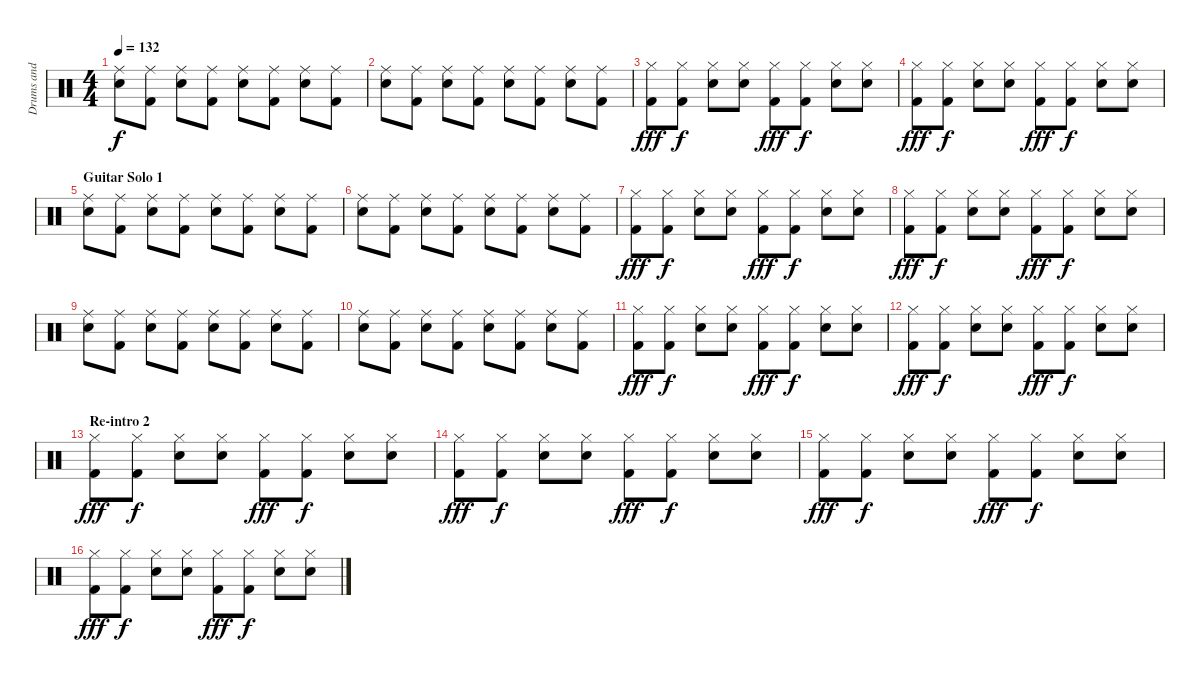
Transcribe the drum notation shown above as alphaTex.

\track ("Drums and Percussion" "Drums and ") {instrument percussion}
\staff {score}
\articulation defaults
\ts (4 4)
\tempo 132
\clef neutral
\ks c
("Ride (middle)" "Electric Snare (hit)").8{dy f} ("Ride (middle)" "Kick (hit) 2").8 ("Ride (middle)" "Electric Snare (hit)").8 ("Ride (middle)" "Kick (hit) 2").8 ("Ride (middle)" "Electric Snare (hit)").8 ("Ride (middle)" "Kick (hit) 2").8 ("Ride (middle)" "Electric Snare (hit)").8 ("Ride (middle)" "Kick (hit) 2").8 |
("Ride (middle)" "Electric Snare (hit)").8 ("Ride (middle)" "Kick (hit) 2").8 ("Ride (middle)" "Electric Snare (hit)").8 ("Ride (middle)" "Kick (hit) 2").8 ("Ride (middle)" "Electric Snare (hit)").8 ("Ride (middle)" "Kick (hit) 2").8 ("Ride (middle)" "Electric Snare (hit)").8 ("Ride (middle)" "Kick (hit) 2").8 |
("Hi-Hat (closed)" "Kick (hit) 2").8{dy fff} ("Hi-Hat (closed)" "Kick (hit) 2").8{dy f} ("Hi-Hat (closed)" "Hand Clap (hit)").8 ("Hi-Hat (closed)" "Hand Clap (hit)").8 ("Hi-Hat (closed)" "Kick (hit) 2").8{dy fff} ("Hi-Hat (closed)" "Kick (hit) 2").8{dy f} ("Hi-Hat (closed)" "Hand Clap (hit)").8 ("Hi-Hat (closed)" "Hand Clap (hit)").8 |
("Hi-Hat (closed)" "Kick (hit) 2").8{dy fff} ("Hi-Hat (closed)" "Kick (hit) 2").8{dy f} ("Hi-Hat (closed)" "Hand Clap (hit)").8 ("Hi-Hat (closed)" "Hand Clap (hit)").8 ("Hi-Hat (closed)" "Kick (hit) 2").8{dy fff} ("Hi-Hat (closed)" "Kick (hit) 2").8{dy f} ("Hi-Hat (closed)" "Hand Clap (hit)").8 ("Hi-Hat (closed)" "Hand Clap (hit)").8 |
\section ("" "Guitar Solo 1")
("Ride (middle)" "Electric Snare (hit)").8 ("Ride (middle)" "Kick (hit) 2").8 ("Ride (middle)" "Electric Snare (hit)").8 ("Ride (middle)" "Kick (hit) 2").8 ("Ride (middle)" "Electric Snare (hit)").8 ("Ride (middle)" "Kick (hit) 2").8 ("Ride (middle)" "Electric Snare (hit)").8 ("Ride (middle)" "Kick (hit) 2").8 |
("Ride (middle)" "Electric Snare (hit)").8 ("Ride (middle)" "Kick (hit) 2").8 ("Ride (middle)" "Electric Snare (hit)").8 ("Ride (middle)" "Kick (hit) 2").8 ("Ride (middle)" "Electric Snare (hit)").8 ("Ride (middle)" "Kick (hit) 2").8 ("Ride (middle)" "Electric Snare (hit)").8 ("Ride (middle)" "Kick (hit) 2").8 |
("Hi-Hat (closed)" "Kick (hit) 2").8{dy fff} ("Hi-Hat (closed)" "Kick (hit) 2").8{dy f} ("Hi-Hat (closed)" "Hand Clap (hit)").8 ("Hi-Hat (closed)" "Hand Clap (hit)").8 ("Hi-Hat (closed)" "Kick (hit) 2").8{dy fff} ("Hi-Hat (closed)" "Kick (hit) 2").8{dy f} ("Hi-Hat (closed)" "Hand Clap (hit)").8 ("Hi-Hat (closed)" "Hand Clap (hit)").8 |
("Hi-Hat (closed)" "Kick (hit) 2").8{dy fff} ("Hi-Hat (closed)" "Kick (hit) 2").8{dy f} ("Hi-Hat (closed)" "Hand Clap (hit)").8 ("Hi-Hat (closed)" "Hand Clap (hit)").8 ("Hi-Hat (closed)" "Kick (hit) 2").8{dy fff} ("Hi-Hat (closed)" "Kick (hit) 2").8{dy f} ("Hi-Hat (closed)" "Hand Clap (hit)").8 ("Hi-Hat (closed)" "Hand Clap (hit)").8 |
("Ride (middle)" "Electric Snare (hit)").8 ("Ride (middle)" "Kick (hit) 2").8 ("Ride (middle)" "Electric Snare (hit)").8 ("Ride (middle)" "Kick (hit) 2").8 ("Ride (middle)" "Electric Snare (hit)").8 ("Ride (middle)" "Kick (hit) 2").8 ("Ride (middle)" "Electric Snare (hit)").8 ("Ride (middle)" "Kick (hit) 2").8 |
("Ride (middle)" "Electric Snare (hit)").8 ("Ride (middle)" "Kick (hit) 2").8 ("Ride (middle)" "Electric Snare (hit)").8 ("Ride (middle)" "Kick (hit) 2").8 ("Ride (middle)" "Electric Snare (hit)").8 ("Ride (middle)" "Kick (hit) 2").8 ("Ride (middle)" "Electric Snare (hit)").8 ("Ride (middle)" "Kick (hit) 2").8 |
("Hi-Hat (closed)" "Kick (hit) 2").8{dy fff} ("Hi-Hat (closed)" "Kick (hit) 2").8{dy f} ("Hi-Hat (closed)" "Hand Clap (hit)").8 ("Hi-Hat (closed)" "Hand Clap (hit)").8 ("Hi-Hat (closed)" "Kick (hit) 2").8{dy fff} ("Hi-Hat (closed)" "Kick (hit) 2").8{dy f} ("Hi-Hat (closed)" "Hand Clap (hit)").8 ("Hi-Hat (closed)" "Hand Clap (hit)").8 |
("Hi-Hat (closed)" "Kick (hit) 2").8{dy fff} ("Hi-Hat (closed)" "Kick (hit) 2").8{dy f} ("Hi-Hat (closed)" "Hand Clap (hit)").8 ("Hi-Hat (closed)" "Hand Clap (hit)").8 ("Hi-Hat (closed)" "Kick (hit) 2").8{dy fff} ("Hi-Hat (closed)" "Kick (hit) 2").8{dy f} ("Hi-Hat (closed)" "Hand Clap (hit)").8 ("Hi-Hat (closed)" "Hand Clap (hit)").8 |
\section ("" "Re-intro 2")
("Hi-Hat (closed)" "Kick (hit) 2").8{dy fff} ("Hi-Hat (closed)" "Kick (hit) 2").8{dy f} ("Hi-Hat (closed)" "Hand Clap (hit)").8 ("Hi-Hat (closed)" "Hand Clap (hit)").8 ("Hi-Hat (closed)" "Kick (hit) 2").8{dy fff} ("Hi-Hat (closed)" "Kick (hit) 2").8{dy f} ("Hi-Hat (closed)" "Hand Clap (hit)").8 ("Hi-Hat (closed)" "Hand Clap (hit)").8 |
("Hi-Hat (closed)" "Kick (hit) 2").8{dy fff} ("Hi-Hat (closed)" "Kick (hit) 2").8{dy f} ("Hi-Hat (closed)" "Hand Clap (hit)").8 ("Hi-Hat (closed)" "Hand Clap (hit)").8 ("Hi-Hat (closed)" "Kick (hit) 2").8{dy fff} ("Hi-Hat (closed)" "Kick (hit) 2").8{dy f} ("Hi-Hat (closed)" "Hand Clap (hit)").8 ("Hi-Hat (closed)" "Hand Clap (hit)").8 |
("Hi-Hat (closed)" "Kick (hit) 2").8{dy fff} ("Hi-Hat (closed)" "Kick (hit) 2").8{dy f} ("Hi-Hat (closed)" "Hand Clap (hit)").8 ("Hi-Hat (closed)" "Hand Clap (hit)").8 ("Hi-Hat (closed)" "Kick (hit) 2").8{dy fff} ("Hi-Hat (closed)" "Kick (hit) 2").8{dy f} ("Hi-Hat (closed)" "Hand Clap (hit)").8 ("Hi-Hat (closed)" "Hand Clap (hit)").8 |
("Hi-Hat (closed)" "Kick (hit) 2").8{dy fff} ("Hi-Hat (closed)" "Kick (hit) 2").8{dy f} ("Hi-Hat (closed)" "Hand Clap (hit)").8 ("Hi-Hat (closed)" "Hand Clap (hit)").8 ("Hi-Hat (closed)" "Kick (hit) 2").8{dy fff} ("Hi-Hat (closed)" "Kick (hit) 2").8{dy f} ("Hi-Hat (closed)" "Hand Clap (hit)").8 ("Hi-Hat (closed)" "Hand Clap (hit)").8
